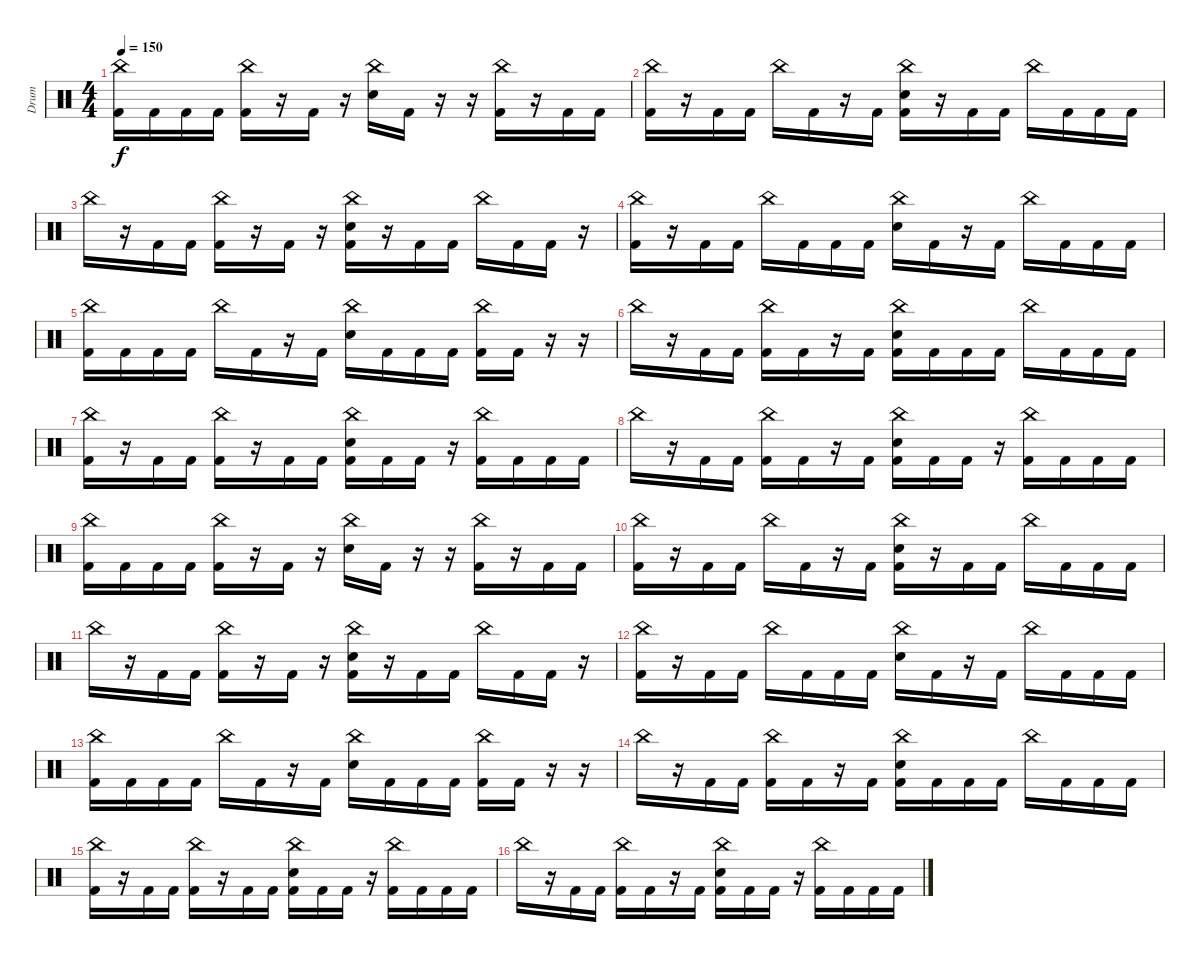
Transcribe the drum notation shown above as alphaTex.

\track ("Drum" "Drum") {instrument percussion}
\staff {score}
\articulation defaults
\ts (4 4)
\tempo 150
\clef neutral
\ks c
("China (hit)" "Kick (hit) 2").16{dy f} "Kick (hit) 2".16 "Kick (hit) 2".16 "Kick (hit) 2".16 ("China (hit)" "Kick (hit) 2").16 r.16 "Kick (hit) 2".16 r.16 ("China (hit)" "Electric Snare (hit)").16 "Kick (hit) 2".16 r.16 r.16 ("China (hit)" "Kick (hit) 2").16 r.16 "Kick (hit) 2".16 "Kick (hit) 2".16 |
("China (hit)" "Kick (hit) 2").16 r.16 "Kick (hit) 2".16 "Kick (hit) 2".16 "China (hit)".16 "Kick (hit) 2".16 r.16 "Kick (hit) 2".16 ("China (hit)" "Electric Snare (hit)" "Kick (hit) 2").16 r.16 "Kick (hit) 2".16 "Kick (hit) 2".16 "China (hit)".16 "Kick (hit) 2".16 "Kick (hit) 2".16 "Kick (hit) 2".16 |
"China (hit)".16 r.16 "Kick (hit) 2".16 "Kick (hit) 2".16 ("China (hit)" "Kick (hit) 2").16 r.16 "Kick (hit) 2".16 r.16 ("China (hit)" "Electric Snare (hit)" "Kick (hit) 2").16 r.16 "Kick (hit) 2".16 "Kick (hit) 2".16 "China (hit)".16 "Kick (hit) 2".16 "Kick (hit) 2".16 r.16 |
("China (hit)" "Kick (hit) 2").16 r.16 "Kick (hit) 2".16 "Kick (hit) 2".16 "China (hit)".16 "Kick (hit) 2".16 "Kick (hit) 2".16 "Kick (hit) 2".16 ("China (hit)" "Electric Snare (hit)").16 "Kick (hit) 2".16 r.16 "Kick (hit) 2".16 "China (hit)".16 "Kick (hit) 2".16 "Kick (hit) 2".16 "Kick (hit) 2".16 |
("China (hit)" "Kick (hit) 2").16 "Kick (hit) 2".16 "Kick (hit) 2".16 "Kick (hit) 2".16 "China (hit)".16 "Kick (hit) 2".16 r.16 "Kick (hit) 2".16 ("China (hit)" "Electric Snare (hit)").16 "Kick (hit) 2".16 "Kick (hit) 2".16 "Kick (hit) 2".16 ("China (hit)" "Kick (hit) 2").16 "Kick (hit) 2".16 r.16 r.16 |
"China (hit)".16 r.16 "Kick (hit) 2".16 "Kick (hit) 2".16 ("China (hit)" "Kick (hit) 2").16 "Kick (hit) 2".16 r.16 "Kick (hit) 2".16 ("China (hit)" "Electric Snare (hit)" "Kick (hit) 2").16 "Kick (hit) 2".16 "Kick (hit) 2".16 "Kick (hit) 2".16 "China (hit)".16 "Kick (hit) 2".16 "Kick (hit) 2".16 "Kick (hit) 2".16 |
("China (hit)" "Kick (hit) 2").16 r.16 "Kick (hit) 2".16 "Kick (hit) 2".16 ("China (hit)" "Kick (hit) 2").16 r.16 "Kick (hit) 2".16 "Kick (hit) 2".16 ("China (hit)" "Electric Snare (hit)" "Kick (hit) 2").16 "Kick (hit) 2".16 "Kick (hit) 2".16 r.16 ("China (hit)" "Kick (hit) 2").16 "Kick (hit) 2".16 "Kick (hit) 2".16 "Kick (hit) 2".16 |
"China (hit)".16 r.16 "Kick (hit) 2".16 "Kick (hit) 2".16 ("China (hit)" "Kick (hit) 2").16 "Kick (hit) 2".16 r.16 "Kick (hit) 2".16 ("China (hit)" "Electric Snare (hit)" "Kick (hit) 2").16 "Kick (hit) 2".16 "Kick (hit) 2".16 r.16 ("China (hit)" "Kick (hit) 2").16 "Kick (hit) 2".16 "Kick (hit) 2".16 "Kick (hit) 2".16 |
("China (hit)" "Kick (hit) 2").16 "Kick (hit) 2".16 "Kick (hit) 2".16 "Kick (hit) 2".16 ("China (hit)" "Kick (hit) 2").16 r.16 "Kick (hit) 2".16 r.16 ("China (hit)" "Electric Snare (hit)").16 "Kick (hit) 2".16 r.16 r.16 ("China (hit)" "Kick (hit) 2").16 r.16 "Kick (hit) 2".16 "Kick (hit) 2".16 |
("China (hit)" "Kick (hit) 2").16 r.16 "Kick (hit) 2".16 "Kick (hit) 2".16 "China (hit)".16 "Kick (hit) 2".16 r.16 "Kick (hit) 2".16 ("China (hit)" "Electric Snare (hit)" "Kick (hit) 2").16 r.16 "Kick (hit) 2".16 "Kick (hit) 2".16 "China (hit)".16 "Kick (hit) 2".16 "Kick (hit) 2".16 "Kick (hit) 2".16 |
"China (hit)".16 r.16 "Kick (hit) 2".16 "Kick (hit) 2".16 ("China (hit)" "Kick (hit) 2").16 r.16 "Kick (hit) 2".16 r.16 ("China (hit)" "Electric Snare (hit)" "Kick (hit) 2").16 r.16 "Kick (hit) 2".16 "Kick (hit) 2".16 "China (hit)".16 "Kick (hit) 2".16 "Kick (hit) 2".16 r.16 |
("China (hit)" "Kick (hit) 2").16 r.16 "Kick (hit) 2".16 "Kick (hit) 2".16 "China (hit)".16 "Kick (hit) 2".16 "Kick (hit) 2".16 "Kick (hit) 2".16 ("China (hit)" "Electric Snare (hit)").16 "Kick (hit) 2".16 r.16 "Kick (hit) 2".16 "China (hit)".16 "Kick (hit) 2".16 "Kick (hit) 2".16 "Kick (hit) 2".16 |
("China (hit)" "Kick (hit) 2").16 "Kick (hit) 2".16 "Kick (hit) 2".16 "Kick (hit) 2".16 "China (hit)".16 "Kick (hit) 2".16 r.16 "Kick (hit) 2".16 ("China (hit)" "Electric Snare (hit)").16 "Kick (hit) 2".16 "Kick (hit) 2".16 "Kick (hit) 2".16 ("China (hit)" "Kick (hit) 2").16 "Kick (hit) 2".16 r.16 r.16 |
"China (hit)".16 r.16 "Kick (hit) 2".16 "Kick (hit) 2".16 ("China (hit)" "Kick (hit) 2").16 "Kick (hit) 2".16 r.16 "Kick (hit) 2".16 ("China (hit)" "Electric Snare (hit)" "Kick (hit) 2").16 "Kick (hit) 2".16 "Kick (hit) 2".16 "Kick (hit) 2".16 "China (hit)".16 "Kick (hit) 2".16 "Kick (hit) 2".16 "Kick (hit) 2".16 |
("China (hit)" "Kick (hit) 2").16 r.16 "Kick (hit) 2".16 "Kick (hit) 2".16 ("China (hit)" "Kick (hit) 2").16 r.16 "Kick (hit) 2".16 "Kick (hit) 2".16 ("China (hit)" "Electric Snare (hit)" "Kick (hit) 2").16 "Kick (hit) 2".16 "Kick (hit) 2".16 r.16 ("China (hit)" "Kick (hit) 2").16 "Kick (hit) 2".16 "Kick (hit) 2".16 "Kick (hit) 2".16 |
"China (hit)".16 r.16 "Kick (hit) 2".16 "Kick (hit) 2".16 ("China (hit)" "Kick (hit) 2").16 "Kick (hit) 2".16 r.16 "Kick (hit) 2".16 ("China (hit)" "Electric Snare (hit)" "Kick (hit) 2").16 "Kick (hit) 2".16 "Kick (hit) 2".16 r.16 ("China (hit)" "Kick (hit) 2").16 "Kick (hit) 2".16 "Kick (hit) 2".16 "Kick (hit) 2".16
